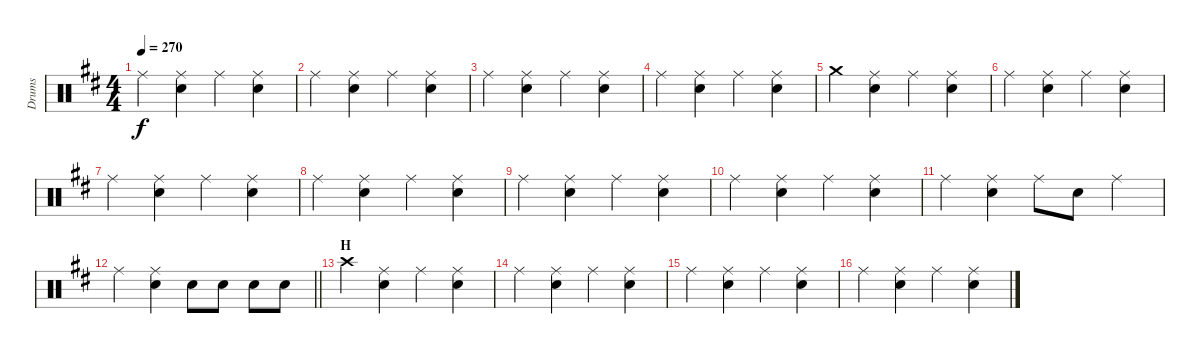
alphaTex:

\track ("Drums" "Drums") {instrument percussion}
\staff {score}
\articulation defaults
\ts (4 4)
\tempo 270
\clef neutral
\ks d "Ride (middle)".4{dy f}
("Ride (middle)" "Snare (hit) 2").4 "Ride (middle)".4 ("Ride (middle)" "Snare (hit) 2").4 |
"Ride (middle)".4 ("Ride (middle)" "Snare (hit) 2").4 "Ride (middle)".4 ("Ride (middle)" "Snare (hit) 2").4 |
"Ride (middle)".4 ("Ride (middle)" "Snare (hit) 2").4 "Ride (middle)".4 ("Ride (middle)" "Snare (hit) 2").4 |
"Ride (middle)".4 ("Ride (middle)" "Snare (hit) 2").4 "Ride (middle)".4 ("Ride (middle)" "Snare (hit) 2").4 |
"Crash medium (hit)".4 ("Ride (middle)" "Snare (hit) 2").4 "Ride (middle)".4 ("Ride (middle)" "Snare (hit) 2").4 |
"Ride (middle)".4 ("Ride (middle)" "Snare (hit) 2").4 "Ride (middle)".4 ("Ride (middle)" "Snare (hit) 2").4 |
"Ride (middle)".4 ("Ride (middle)" "Snare (hit) 2").4 "Ride (middle)".4 ("Ride (middle)" "Snare (hit) 2").4 |
"Ride (middle)".4 ("Ride (middle)" "Snare (hit) 2").4 "Ride (middle)".4 ("Ride (middle)" "Snare (hit) 2").4 |
"Ride (middle)".4 ("Ride (middle)" "Snare (hit) 2").4 "Ride (middle)".4 ("Ride (middle)" "Snare (hit) 2").4 |
"Ride (middle)".4 ("Ride (middle)" "Snare (hit) 2").4 "Ride (middle)".4 ("Ride (middle)" "Snare (hit) 2").4 |
"Ride (middle)".4 ("Ride (middle)" "Snare (hit) 2").4 "Ride (middle)".8 "Snare (hit) 2".8 "Ride (middle)".4 |
\barLineRight lightlight "Ride (middle)".4
("Ride (middle)" "Snare (hit) 2").4 "Snare (hit) 2".8 "Snare (hit) 2".8 "Snare (hit) 2".8 "Snare (hit) 2".8 |
\section ("" "H")
"Crash high (hit)".4 ("Ride (middle)" "Snare (hit) 2").4 "Ride (middle)".4 ("Ride (middle)" "Snare (hit) 2").4 |
"Ride (middle)".4 ("Ride (middle)" "Snare (hit) 2").4 "Ride (middle)".4 ("Ride (middle)" "Snare (hit) 2").4 |
"Ride (middle)".4 ("Ride (middle)" "Snare (hit) 2").4 "Ride (middle)".4 ("Ride (middle)" "Snare (hit) 2").4 |
"Ride (middle)".4 ("Ride (middle)" "Snare (hit) 2").4 "Ride (middle)".4 ("Ride (middle)" "Snare (hit) 2").4
